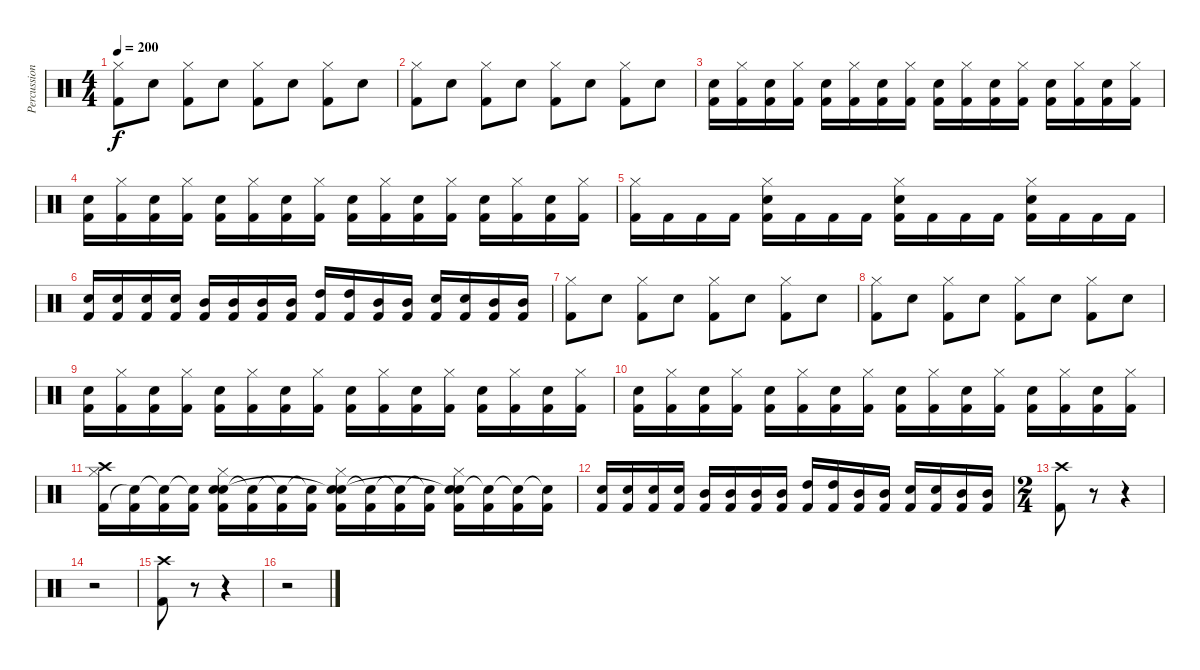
\track ("Percussion" "Percussion") {instrument percussion}
\staff {score}
\articulation defaults
\ts (4 4)
\tempo 200
\clef neutral
\ks c
("Hi-Hat (closed)" "Kick (hit) 2").8{dy f} "Snare (hit) 2".8 ("Hi-Hat (closed)" "Kick (hit) 2").8 "Snare (hit) 2".8 ("Hi-Hat (closed)" "Kick (hit) 2").8 "Snare (hit) 2".8 ("Hi-Hat (closed)" "Kick (hit) 2").8 "Snare (hit) 2".8 |
("Hi-Hat (closed)" "Kick (hit) 2").8 "Snare (hit) 2".8 ("Hi-Hat (closed)" "Kick (hit) 2").8 "Snare (hit) 2".8 ("Hi-Hat (closed)" "Kick (hit) 2").8 "Snare (hit) 2".8 ("Hi-Hat (closed)" "Kick (hit) 2").8 "Snare (hit) 2".8 |
("Snare (hit) 2" "Kick (hit) 2").16 ("Hi-Hat (closed)" "Kick (hit) 2").16 ("Snare (hit) 2" "Kick (hit) 2").16 ("Hi-Hat (closed)" "Kick (hit) 2").16 ("Snare (hit) 2" "Kick (hit) 2").16 ("Hi-Hat (closed)" "Kick (hit) 2").16 ("Snare (hit) 2" "Kick (hit) 2").16 ("Hi-Hat (closed)" "Kick (hit) 2").16 ("Snare (hit) 2" "Kick (hit) 2").16 ("Hi-Hat (closed)" "Kick (hit) 2").16 ("Snare (hit) 2" "Kick (hit) 2").16 ("Hi-Hat (closed)" "Kick (hit) 2").16 ("Snare (hit) 2" "Kick (hit) 2").16 ("Hi-Hat (closed)" "Kick (hit) 2").16 ("Snare (hit) 2" "Kick (hit) 2").16 ("Hi-Hat (closed)" "Kick (hit) 2").16 |
("Snare (hit) 2" "Kick (hit) 2").16 ("Hi-Hat (closed)" "Kick (hit) 2").16 ("Snare (hit) 2" "Kick (hit) 2").16 ("Hi-Hat (closed)" "Kick (hit) 2").16 ("Snare (hit) 2" "Kick (hit) 2").16 ("Hi-Hat (closed)" "Kick (hit) 2").16 ("Snare (hit) 2" "Kick (hit) 2").16 ("Hi-Hat (closed)" "Kick (hit) 2").16 ("Snare (hit) 2" "Kick (hit) 2").16 ("Hi-Hat (closed)" "Kick (hit) 2").16 ("Snare (hit) 2" "Kick (hit) 2").16 ("Hi-Hat (closed)" "Kick (hit) 2").16 ("Snare (hit) 2" "Kick (hit) 2").16 ("Hi-Hat (closed)" "Kick (hit) 2").16 ("Snare (hit) 2" "Kick (hit) 2").16 ("Hi-Hat (closed)" "Kick (hit) 2").16 |
("Hi-Hat (closed)" "Kick (hit) 2").16 "Kick (hit) 2".16 "Kick (hit) 2".16 "Kick (hit) 2".16 ("Hi-Hat (closed)" "Snare (hit) 2" "Kick (hit) 2").16 "Kick (hit) 2".16 "Kick (hit) 2".16 "Kick (hit) 2".16 ("Hi-Hat (closed)" "Snare (hit) 2" "Kick (hit) 2").16 "Kick (hit) 2".16 "Kick (hit) 2".16 "Kick (hit) 2".16 ("Hi-Hat (closed)" "Snare (hit) 2" "Kick (hit) 2").16 "Kick (hit) 2".16 "Kick (hit) 2".16 "Kick (hit) 2".16 |
("Snare (hit) 2" "Kick (hit) 2").16 ("Snare (hit) 2" "Kick (hit) 2").16 ("Snare (hit) 2" "Kick (hit) 2").16 ("Snare (hit) 2" "Kick (hit) 2").16 ("Mid Tom (hit)" "Kick (hit) 2").16 ("Mid Tom (hit)" "Kick (hit) 2").16 ("Mid Tom (hit)" "Kick (hit) 2").16 ("Mid Tom (hit)" "Kick (hit) 2").16 ("High Tom (hit)" "Kick (hit) 2").16 ("High Tom (hit)" "Kick (hit) 2").16 ("Mid Tom (hit)" "Kick (hit) 2").16 ("Mid Tom (hit)" "Kick (hit) 2").16 ("Snare (hit) 2" "Kick (hit) 2").16 ("Snare (hit) 2" "Kick (hit) 2").16 ("Mid Tom (hit)" "Kick (hit) 2").16 ("Mid Tom (hit)" "Kick (hit) 2").16 |
("Hi-Hat (closed)" "Kick (hit) 2").8 "Snare (hit) 2".8 ("Hi-Hat (closed)" "Kick (hit) 2").8 "Snare (hit) 2".8 ("Hi-Hat (closed)" "Kick (hit) 2").8 "Snare (hit) 2".8 ("Hi-Hat (closed)" "Kick (hit) 2").8 "Snare (hit) 2".8 |
("Hi-Hat (closed)" "Kick (hit) 2").8 "Snare (hit) 2".8 ("Hi-Hat (closed)" "Kick (hit) 2").8 "Snare (hit) 2".8 ("Hi-Hat (closed)" "Kick (hit) 2").8 "Snare (hit) 2".8 ("Hi-Hat (closed)" "Kick (hit) 2").8 "Snare (hit) 2".8 |
("Snare (hit) 2" "Kick (hit) 2").16 ("Hi-Hat (closed)" "Kick (hit) 2").16 ("Snare (hit) 2" "Kick (hit) 2").16 ("Hi-Hat (closed)" "Kick (hit) 2").16 ("Snare (hit) 2" "Kick (hit) 2").16 ("Hi-Hat (closed)" "Kick (hit) 2").16 ("Snare (hit) 2" "Kick (hit) 2").16 ("Hi-Hat (closed)" "Kick (hit) 2").16 ("Snare (hit) 2" "Kick (hit) 2").16 ("Hi-Hat (closed)" "Kick (hit) 2").16 ("Snare (hit) 2" "Kick (hit) 2").16 ("Hi-Hat (closed)" "Kick (hit) 2").16 ("Snare (hit) 2" "Kick (hit) 2").16 ("Hi-Hat (closed)" "Kick (hit) 2").16 ("Snare (hit) 2" "Kick (hit) 2").16 ("Hi-Hat (closed)" "Kick (hit) 2").16 |
("Snare (hit) 2" "Kick (hit) 2").16 ("Hi-Hat (closed)" "Kick (hit) 2").16 ("Snare (hit) 2" "Kick (hit) 2").16 ("Hi-Hat (closed)" "Kick (hit) 2").16 ("Snare (hit) 2" "Kick (hit) 2").16 ("Hi-Hat (closed)" "Kick (hit) 2").16 ("Snare (hit) 2" "Kick (hit) 2").16 ("Hi-Hat (closed)" "Kick (hit) 2").16 ("Snare (hit) 2" "Kick (hit) 2").16 ("Hi-Hat (closed)" "Kick (hit) 2").16 ("Snare (hit) 2" "Kick (hit) 2").16 ("Hi-Hat (closed)" "Kick (hit) 2").16 ("Snare (hit) 2" "Kick (hit) 2").16 ("Hi-Hat (closed)" "Kick (hit) 2").16 ("Snare (hit) 2" "Kick (hit) 2").16 ("Hi-Hat (closed)" "Kick (hit) 2").16 |
("Hi-Hat (closed)" "Kick (hit) 2" "Crash high (hit)").16 ("Kick (hit) 2" "Snare (hit)"{t}).16 ("Kick (hit) 2" "Snare (hit)"{t}).16 ("Kick (hit) 2" "Snare (hit)"{t}).16 ("Hi-Hat (closed)" "Snare (hit) 2" "Kick (hit) 2" "Snare (hit)").16 ("Kick (hit) 2" "Snare (hit)"{t}).16 ("Kick (hit) 2" "Snare (hit)"{t}).16 ("Kick (hit) 2" "Snare (hit)"{t}).16 ("Hi-Hat (closed)" "Snare (hit) 2" "Kick (hit) 2" "Snare (hit)"{t}).16 ("Kick (hit) 2" "Snare (hit)"{t}).16 ("Kick (hit) 2" "Snare (hit)"{t}).16 ("Kick (hit) 2" "Snare (hit)"{t}).16 ("Hi-Hat (closed)" "Snare (hit) 2" "Kick (hit) 2" "Snare (hit)"{t}).16 ("Kick (hit) 2" "Snare (hit)"{t}).16 ("Kick (hit) 2" "Snare (hit)"{t}).16 ("Kick (hit) 2" "Snare (hit)"{t}).16 |
("Snare (hit) 2" "Kick (hit) 2").16 ("Snare (hit) 2" "Kick (hit) 2").16 ("Snare (hit) 2" "Kick (hit) 2").16 ("Snare (hit) 2" "Kick (hit) 2").16 ("Mid Tom (hit)" "Kick (hit) 2").16 ("Mid Tom (hit)" "Kick (hit) 2").16 ("Mid Tom (hit)" "Kick (hit) 2").16 ("Mid Tom (hit)" "Kick (hit) 2").16 ("High Tom (hit)" "Kick (hit) 2").16 ("High Tom (hit)" "Kick (hit) 2").16 ("Mid Tom (hit)" "Kick (hit) 2").16 ("Mid Tom (hit)" "Kick (hit) 2").16 ("Snare (hit) 2" "Kick (hit) 2").16 ("Snare (hit) 2" "Kick (hit) 2").16 ("Mid Tom (hit)" "Kick (hit) 2").16 ("Mid Tom (hit)" "Kick (hit) 2").16 |
\ts (2 4)
("Kick (hit) 2" "Crash high (hit)").8 r.8 r.4 |
r.2 |
("Kick (hit) 2" "Crash high (hit)").8 r.8 r.4 |
r.2
